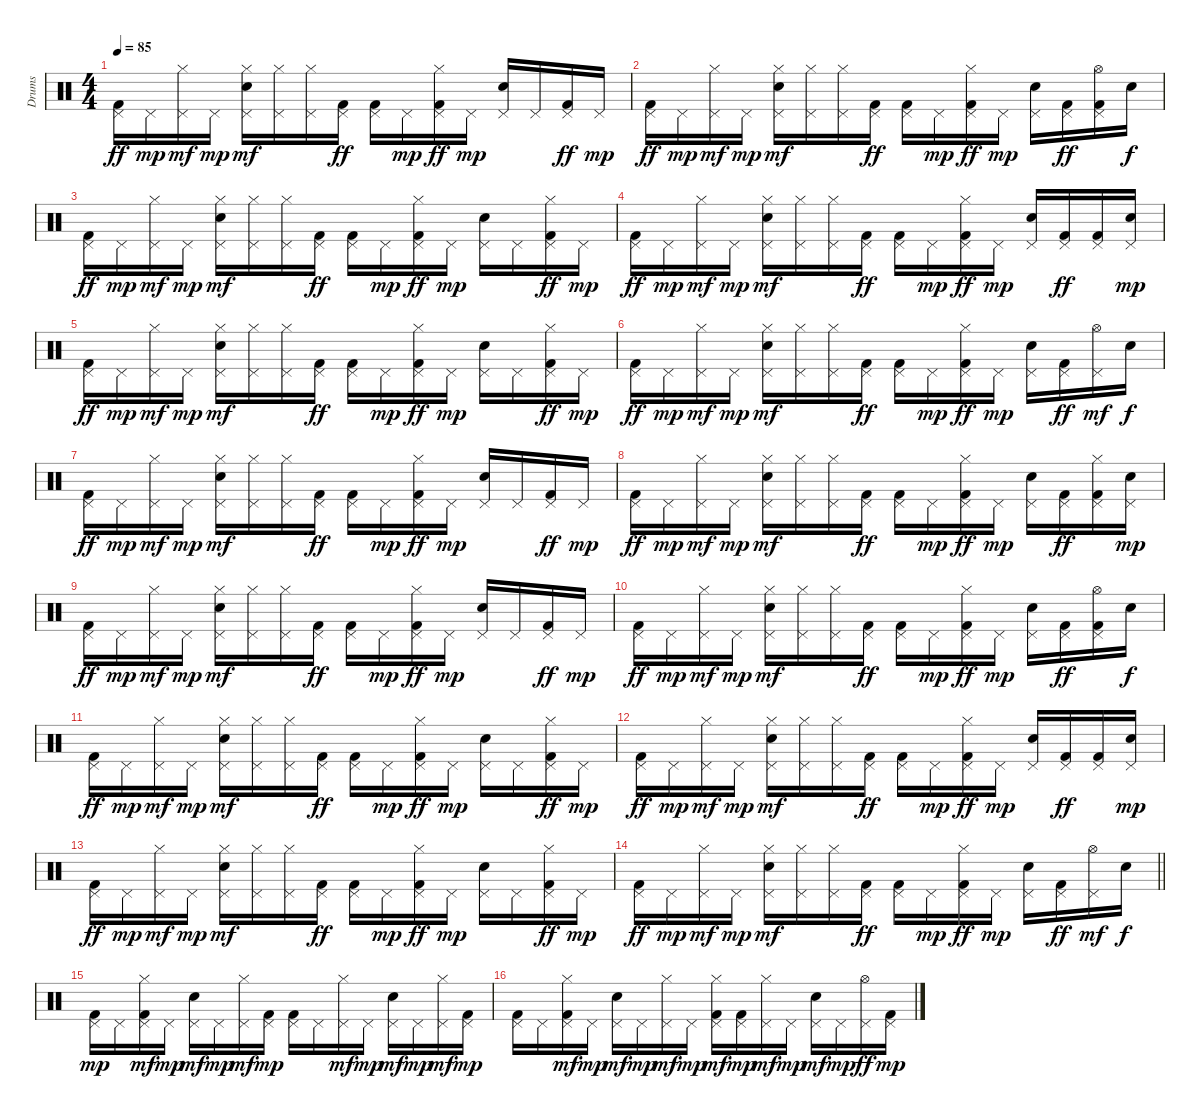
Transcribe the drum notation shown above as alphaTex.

\track ("Drums" "Drums") {instrument percussion}
\staff {score}
\articulation defaults
\ts (4 4)
\tempo 85
\clef neutral
\ks c
("Pedal Hi-Hat (hit)" "Kick (hit) 2").16{dy ff} "Pedal Hi-Hat (hit)".16{dy mp} ("Pedal Hi-Hat (hit)" "Hi-Hat (closed)").16{dy mf} "Pedal Hi-Hat (hit)".16{dy mp} ("Pedal Hi-Hat (hit)" "Hi-Hat (closed)" "Snare (hit) 2").16{dy mf} ("Pedal Hi-Hat (hit)" "Hi-Hat (closed)").16 ("Pedal Hi-Hat (hit)" "Hi-Hat (closed)").16 ("Pedal Hi-Hat (hit)" "Kick (hit) 2").16{dy ff} ("Pedal Hi-Hat (hit)" "Kick (hit) 2").16 "Pedal Hi-Hat (hit)".16{dy mp} ("Pedal Hi-Hat (hit)" "Hi-Hat (closed)" "Kick (hit) 2").16{dy ff} "Pedal Hi-Hat (hit)".16{dy mp} ("Pedal Hi-Hat (hit)" "Snare (hit) 2").16 "Pedal Hi-Hat (hit)".16 ("Pedal Hi-Hat (hit)" "Kick (hit) 2").16{dy ff} "Pedal Hi-Hat (hit)".16{dy mp} |
("Pedal Hi-Hat (hit)" "Kick (hit) 2").16{dy ff} "Pedal Hi-Hat (hit)".16{dy mp} ("Pedal Hi-Hat (hit)" "Hi-Hat (closed)").16{dy mf} "Pedal Hi-Hat (hit)".16{dy mp} ("Pedal Hi-Hat (hit)" "Hi-Hat (closed)" "Snare (hit) 2").16{dy mf} ("Pedal Hi-Hat (hit)" "Hi-Hat (closed)").16 ("Pedal Hi-Hat (hit)" "Hi-Hat (closed)").16 ("Pedal Hi-Hat (hit)" "Kick (hit) 2").16{dy ff} ("Pedal Hi-Hat (hit)" "Kick (hit) 2").16 "Pedal Hi-Hat (hit)".16{dy mp} ("Pedal Hi-Hat (hit)" "Hi-Hat (closed)" "Kick (hit) 2").16{dy ff} "Pedal Hi-Hat (hit)".16{dy mp} ("Pedal Hi-Hat (hit)" "Snare (hit) 2").16 ("Pedal Hi-Hat (hit)" "Kick (hit) 2").16{dy ff} ("Pedal Hi-Hat (hit)" "Hi-Hat (open)" "Kick (hit) 2").16 "Snare (hit) 2".16{dy f} |
("Pedal Hi-Hat (hit)" "Kick (hit) 2").16{dy ff} "Pedal Hi-Hat (hit)".16{dy mp} ("Pedal Hi-Hat (hit)" "Hi-Hat (closed)").16{dy mf} "Pedal Hi-Hat (hit)".16{dy mp} ("Pedal Hi-Hat (hit)" "Hi-Hat (closed)" "Snare (hit) 2").16{dy mf} ("Pedal Hi-Hat (hit)" "Hi-Hat (closed)").16 ("Pedal Hi-Hat (hit)" "Hi-Hat (closed)").16 ("Pedal Hi-Hat (hit)" "Kick (hit) 2").16{dy ff} ("Pedal Hi-Hat (hit)" "Kick (hit) 2").16 "Pedal Hi-Hat (hit)".16{dy mp} ("Pedal Hi-Hat (hit)" "Hi-Hat (closed)" "Kick (hit) 2").16{dy ff} "Pedal Hi-Hat (hit)".16{dy mp} ("Pedal Hi-Hat (hit)" "Snare (hit) 2").16 "Pedal Hi-Hat (hit)".16 ("Pedal Hi-Hat (hit)" "Hi-Hat (closed)" "Kick (hit) 2").16{dy ff} "Pedal Hi-Hat (hit)".16{dy mp} |
("Pedal Hi-Hat (hit)" "Kick (hit) 2").16{dy ff} "Pedal Hi-Hat (hit)".16{dy mp} ("Pedal Hi-Hat (hit)" "Hi-Hat (closed)").16{dy mf} "Pedal Hi-Hat (hit)".16{dy mp} ("Pedal Hi-Hat (hit)" "Hi-Hat (closed)" "Snare (hit) 2").16{dy mf} ("Pedal Hi-Hat (hit)" "Hi-Hat (closed)").16 ("Pedal Hi-Hat (hit)" "Hi-Hat (closed)").16 ("Pedal Hi-Hat (hit)" "Kick (hit) 2").16{dy ff} ("Pedal Hi-Hat (hit)" "Kick (hit) 2").16 "Pedal Hi-Hat (hit)".16{dy mp} ("Pedal Hi-Hat (hit)" "Hi-Hat (closed)" "Kick (hit) 2").16{dy ff} "Pedal Hi-Hat (hit)".16{dy mp} ("Pedal Hi-Hat (hit)" "Snare (hit) 2").16 ("Pedal Hi-Hat (hit)" "Kick (hit) 2").16{dy ff} ("Pedal Hi-Hat (hit)" "Kick (hit) 2").16 ("Pedal Hi-Hat (hit)" "Snare (hit) 2").16{dy mp} |
("Pedal Hi-Hat (hit)" "Kick (hit) 2").16{dy ff} "Pedal Hi-Hat (hit)".16{dy mp} ("Pedal Hi-Hat (hit)" "Hi-Hat (closed)").16{dy mf} "Pedal Hi-Hat (hit)".16{dy mp} ("Pedal Hi-Hat (hit)" "Hi-Hat (closed)" "Snare (hit) 2").16{dy mf} ("Pedal Hi-Hat (hit)" "Hi-Hat (closed)").16 ("Pedal Hi-Hat (hit)" "Hi-Hat (closed)").16 ("Pedal Hi-Hat (hit)" "Kick (hit) 2").16{dy ff} ("Pedal Hi-Hat (hit)" "Kick (hit) 2").16 "Pedal Hi-Hat (hit)".16{dy mp} ("Pedal Hi-Hat (hit)" "Hi-Hat (closed)" "Kick (hit) 2").16{dy ff} "Pedal Hi-Hat (hit)".16{dy mp} ("Pedal Hi-Hat (hit)" "Snare (hit) 2").16 "Pedal Hi-Hat (hit)".16 ("Pedal Hi-Hat (hit)" "Hi-Hat (closed)" "Kick (hit) 2").16{dy ff} "Pedal Hi-Hat (hit)".16{dy mp} |
("Pedal Hi-Hat (hit)" "Kick (hit) 2").16{dy ff} "Pedal Hi-Hat (hit)".16{dy mp} ("Pedal Hi-Hat (hit)" "Hi-Hat (closed)").16{dy mf} "Pedal Hi-Hat (hit)".16{dy mp} ("Pedal Hi-Hat (hit)" "Hi-Hat (closed)" "Snare (hit) 2").16{dy mf} ("Pedal Hi-Hat (hit)" "Hi-Hat (closed)").16 ("Pedal Hi-Hat (hit)" "Hi-Hat (closed)").16 ("Pedal Hi-Hat (hit)" "Kick (hit) 2").16{dy ff} ("Pedal Hi-Hat (hit)" "Kick (hit) 2").16 "Pedal Hi-Hat (hit)".16{dy mp} ("Pedal Hi-Hat (hit)" "Hi-Hat (closed)" "Kick (hit) 2").16{dy ff} "Pedal Hi-Hat (hit)".16{dy mp} ("Pedal Hi-Hat (hit)" "Snare (hit) 2").16 ("Pedal Hi-Hat (hit)" "Kick (hit) 2").16{dy ff} ("Pedal Hi-Hat (hit)" "Hi-Hat (open)").16{dy mf} "Snare (hit) 2".16{dy f} |
("Pedal Hi-Hat (hit)" "Kick (hit) 2").16{dy ff} "Pedal Hi-Hat (hit)".16{dy mp} ("Pedal Hi-Hat (hit)" "Hi-Hat (closed)").16{dy mf} "Pedal Hi-Hat (hit)".16{dy mp} ("Pedal Hi-Hat (hit)" "Hi-Hat (closed)" "Snare (hit) 2").16{dy mf} ("Pedal Hi-Hat (hit)" "Hi-Hat (closed)").16 ("Pedal Hi-Hat (hit)" "Hi-Hat (closed)").16 ("Pedal Hi-Hat (hit)" "Kick (hit) 2").16{dy ff} ("Pedal Hi-Hat (hit)" "Kick (hit) 2").16 "Pedal Hi-Hat (hit)".16{dy mp} ("Pedal Hi-Hat (hit)" "Hi-Hat (closed)" "Kick (hit) 2").16{dy ff} "Pedal Hi-Hat (hit)".16{dy mp} ("Pedal Hi-Hat (hit)" "Snare (hit) 2").16 "Pedal Hi-Hat (hit)".16 ("Pedal Hi-Hat (hit)" "Kick (hit) 2").16{dy ff} "Pedal Hi-Hat (hit)".16{dy mp} |
("Pedal Hi-Hat (hit)" "Kick (hit) 2").16{dy ff} "Pedal Hi-Hat (hit)".16{dy mp} ("Pedal Hi-Hat (hit)" "Hi-Hat (closed)").16{dy mf} "Pedal Hi-Hat (hit)".16{dy mp} ("Pedal Hi-Hat (hit)" "Hi-Hat (closed)" "Snare (hit) 2").16{dy mf} ("Pedal Hi-Hat (hit)" "Hi-Hat (closed)").16 ("Pedal Hi-Hat (hit)" "Hi-Hat (closed)").16 ("Pedal Hi-Hat (hit)" "Kick (hit) 2").16{dy ff} ("Pedal Hi-Hat (hit)" "Kick (hit) 2").16 "Pedal Hi-Hat (hit)".16{dy mp} ("Pedal Hi-Hat (hit)" "Hi-Hat (closed)" "Kick (hit) 2").16{dy ff} "Pedal Hi-Hat (hit)".16{dy mp} ("Pedal Hi-Hat (hit)" "Snare (hit) 2").16 ("Pedal Hi-Hat (hit)" "Kick (hit) 2").16{dy ff} ("Pedal Hi-Hat (hit)" "Hi-Hat (closed)" "Kick (hit) 2").16 ("Pedal Hi-Hat (hit)" "Snare (hit) 2").16{dy mp} |
("Pedal Hi-Hat (hit)" "Kick (hit) 2").16{dy ff} "Pedal Hi-Hat (hit)".16{dy mp} ("Pedal Hi-Hat (hit)" "Hi-Hat (closed)").16{dy mf} "Pedal Hi-Hat (hit)".16{dy mp} ("Pedal Hi-Hat (hit)" "Hi-Hat (closed)" "Snare (hit) 2").16{dy mf} ("Pedal Hi-Hat (hit)" "Hi-Hat (closed)").16 ("Pedal Hi-Hat (hit)" "Hi-Hat (closed)").16 ("Pedal Hi-Hat (hit)" "Kick (hit) 2").16{dy ff} ("Pedal Hi-Hat (hit)" "Kick (hit) 2").16 "Pedal Hi-Hat (hit)".16{dy mp} ("Pedal Hi-Hat (hit)" "Hi-Hat (closed)" "Kick (hit) 2").16{dy ff} "Pedal Hi-Hat (hit)".16{dy mp} ("Pedal Hi-Hat (hit)" "Snare (hit) 2").16 "Pedal Hi-Hat (hit)".16 ("Pedal Hi-Hat (hit)" "Kick (hit) 2").16{dy ff} "Pedal Hi-Hat (hit)".16{dy mp} |
("Pedal Hi-Hat (hit)" "Kick (hit) 2").16{dy ff} "Pedal Hi-Hat (hit)".16{dy mp} ("Pedal Hi-Hat (hit)" "Hi-Hat (closed)").16{dy mf} "Pedal Hi-Hat (hit)".16{dy mp} ("Pedal Hi-Hat (hit)" "Hi-Hat (closed)" "Snare (hit) 2").16{dy mf} ("Pedal Hi-Hat (hit)" "Hi-Hat (closed)").16 ("Pedal Hi-Hat (hit)" "Hi-Hat (closed)").16 ("Pedal Hi-Hat (hit)" "Kick (hit) 2").16{dy ff} ("Pedal Hi-Hat (hit)" "Kick (hit) 2").16 "Pedal Hi-Hat (hit)".16{dy mp} ("Pedal Hi-Hat (hit)" "Hi-Hat (closed)" "Kick (hit) 2").16{dy ff} "Pedal Hi-Hat (hit)".16{dy mp} ("Pedal Hi-Hat (hit)" "Snare (hit) 2").16 ("Pedal Hi-Hat (hit)" "Kick (hit) 2").16{dy ff} ("Pedal Hi-Hat (hit)" "Hi-Hat (open)" "Kick (hit) 2").16 "Snare (hit) 2".16{dy f} |
("Pedal Hi-Hat (hit)" "Kick (hit) 2").16{dy ff} "Pedal Hi-Hat (hit)".16{dy mp} ("Pedal Hi-Hat (hit)" "Hi-Hat (closed)").16{dy mf} "Pedal Hi-Hat (hit)".16{dy mp} ("Pedal Hi-Hat (hit)" "Hi-Hat (closed)" "Snare (hit) 2").16{dy mf} ("Pedal Hi-Hat (hit)" "Hi-Hat (closed)").16 ("Pedal Hi-Hat (hit)" "Hi-Hat (closed)").16 ("Pedal Hi-Hat (hit)" "Kick (hit) 2").16{dy ff} ("Pedal Hi-Hat (hit)" "Kick (hit) 2").16 "Pedal Hi-Hat (hit)".16{dy mp} ("Pedal Hi-Hat (hit)" "Hi-Hat (closed)" "Kick (hit) 2").16{dy ff} "Pedal Hi-Hat (hit)".16{dy mp} ("Pedal Hi-Hat (hit)" "Snare (hit) 2").16 "Pedal Hi-Hat (hit)".16 ("Pedal Hi-Hat (hit)" "Hi-Hat (closed)" "Kick (hit) 2").16{dy ff} "Pedal Hi-Hat (hit)".16{dy mp} |
("Pedal Hi-Hat (hit)" "Kick (hit) 2").16{dy ff} "Pedal Hi-Hat (hit)".16{dy mp} ("Pedal Hi-Hat (hit)" "Hi-Hat (closed)").16{dy mf} "Pedal Hi-Hat (hit)".16{dy mp} ("Pedal Hi-Hat (hit)" "Hi-Hat (closed)" "Snare (hit) 2").16{dy mf} ("Pedal Hi-Hat (hit)" "Hi-Hat (closed)").16 ("Pedal Hi-Hat (hit)" "Hi-Hat (closed)").16 ("Pedal Hi-Hat (hit)" "Kick (hit) 2").16{dy ff} ("Pedal Hi-Hat (hit)" "Kick (hit) 2").16 "Pedal Hi-Hat (hit)".16{dy mp} ("Pedal Hi-Hat (hit)" "Hi-Hat (closed)" "Kick (hit) 2").16{dy ff} "Pedal Hi-Hat (hit)".16{dy mp} ("Pedal Hi-Hat (hit)" "Snare (hit) 2").16 ("Pedal Hi-Hat (hit)" "Kick (hit) 2").16{dy ff} ("Pedal Hi-Hat (hit)" "Kick (hit) 2").16 ("Pedal Hi-Hat (hit)" "Snare (hit) 2").16{dy mp} |
("Pedal Hi-Hat (hit)" "Kick (hit) 2").16{dy ff} "Pedal Hi-Hat (hit)".16{dy mp} ("Pedal Hi-Hat (hit)" "Hi-Hat (closed)").16{dy mf} "Pedal Hi-Hat (hit)".16{dy mp} ("Pedal Hi-Hat (hit)" "Hi-Hat (closed)" "Snare (hit) 2").16{dy mf} ("Pedal Hi-Hat (hit)" "Hi-Hat (closed)").16 ("Pedal Hi-Hat (hit)" "Hi-Hat (closed)").16 ("Pedal Hi-Hat (hit)" "Kick (hit) 2").16{dy ff} ("Pedal Hi-Hat (hit)" "Kick (hit) 2").16 "Pedal Hi-Hat (hit)".16{dy mp} ("Pedal Hi-Hat (hit)" "Hi-Hat (closed)" "Kick (hit) 2").16{dy ff} "Pedal Hi-Hat (hit)".16{dy mp} ("Pedal Hi-Hat (hit)" "Snare (hit) 2").16 "Pedal Hi-Hat (hit)".16 ("Pedal Hi-Hat (hit)" "Hi-Hat (closed)" "Kick (hit) 2").16{dy ff} "Pedal Hi-Hat (hit)".16{dy mp} |
\barLineRight lightlight
("Pedal Hi-Hat (hit)" "Kick (hit) 2").16{dy ff} "Pedal Hi-Hat (hit)".16{dy mp} ("Pedal Hi-Hat (hit)" "Hi-Hat (closed)").16{dy mf} "Pedal Hi-Hat (hit)".16{dy mp} ("Pedal Hi-Hat (hit)" "Hi-Hat (closed)" "Snare (hit) 2").16{dy mf} ("Pedal Hi-Hat (hit)" "Hi-Hat (closed)").16 ("Pedal Hi-Hat (hit)" "Hi-Hat (closed)").16 ("Pedal Hi-Hat (hit)" "Kick (hit) 2").16{dy ff} ("Pedal Hi-Hat (hit)" "Kick (hit) 2").16 "Pedal Hi-Hat (hit)".16{dy mp} ("Pedal Hi-Hat (hit)" "Hi-Hat (closed)" "Kick (hit) 2").16{dy ff} "Pedal Hi-Hat (hit)".16{dy mp} ("Pedal Hi-Hat (hit)" "Snare (hit) 2").16 ("Pedal Hi-Hat (hit)" "Kick (hit) 2").16{dy ff} ("Pedal Hi-Hat (hit)" "Hi-Hat (open)").16{dy mf} "Snare (hit) 2".16{dy f} |
\section ("" "")
("Pedal Hi-Hat (hit)" "Kick (hit) 2").16{dy mp} "Pedal Hi-Hat (hit)".16 ("Pedal Hi-Hat (hit)" "Hi-Hat (closed)" "Kick (hit) 2").16{dy mf} "Pedal Hi-Hat (hit)".16{dy mp} ("Pedal Hi-Hat (hit)" "Snare (hit) 2").16{dy mf} "Pedal Hi-Hat (hit)".16{dy mp} ("Pedal Hi-Hat (hit)" "Hi-Hat (closed)").16{dy mf} ("Pedal Hi-Hat (hit)" "Kick (hit) 2").16{dy mp} ("Pedal Hi-Hat (hit)" "Kick (hit) 2").16 "Pedal Hi-Hat (hit)".16 ("Pedal Hi-Hat (hit)" "Hi-Hat (closed)").16{dy mf} "Pedal Hi-Hat (hit)".16{dy mp} ("Pedal Hi-Hat (hit)" "Snare (hit) 2").16{dy mf} "Pedal Hi-Hat (hit)".16{dy mp} ("Pedal Hi-Hat (hit)" "Hi-Hat (closed)").16{dy mf} ("Pedal Hi-Hat (hit)" "Kick (hit) 2").16{dy mp} |
("Pedal Hi-Hat (hit)" "Kick (hit) 2").16 "Pedal Hi-Hat (hit)".16 ("Pedal Hi-Hat (hit)" "Hi-Hat (closed)" "Kick (hit) 2").16{dy mf} "Pedal Hi-Hat (hit)".16{dy mp} ("Pedal Hi-Hat (hit)" "Snare (hit) 2").16{dy mf} "Pedal Hi-Hat (hit)".16{dy mp} ("Pedal Hi-Hat (hit)" "Hi-Hat (closed)").16{dy mf} "Pedal Hi-Hat (hit)".16{dy mp} ("Pedal Hi-Hat (hit)" "Hi-Hat (closed)" "Kick (hit) 2").16{dy mf} ("Pedal Hi-Hat (hit)" "Kick (hit) 2").16{dy mp} ("Pedal Hi-Hat (hit)" "Hi-Hat (closed)").16{dy mf} "Pedal Hi-Hat (hit)".16{dy mp} ("Pedal Hi-Hat (hit)" "Snare (hit) 2").16{dy mf} "Pedal Hi-Hat (hit)".16{dy mp} ("Pedal Hi-Hat (hit)" "Hi-Hat (open)").16{dy ff} ("Pedal Hi-Hat (hit)" "Kick (hit) 2").16{dy mp}
